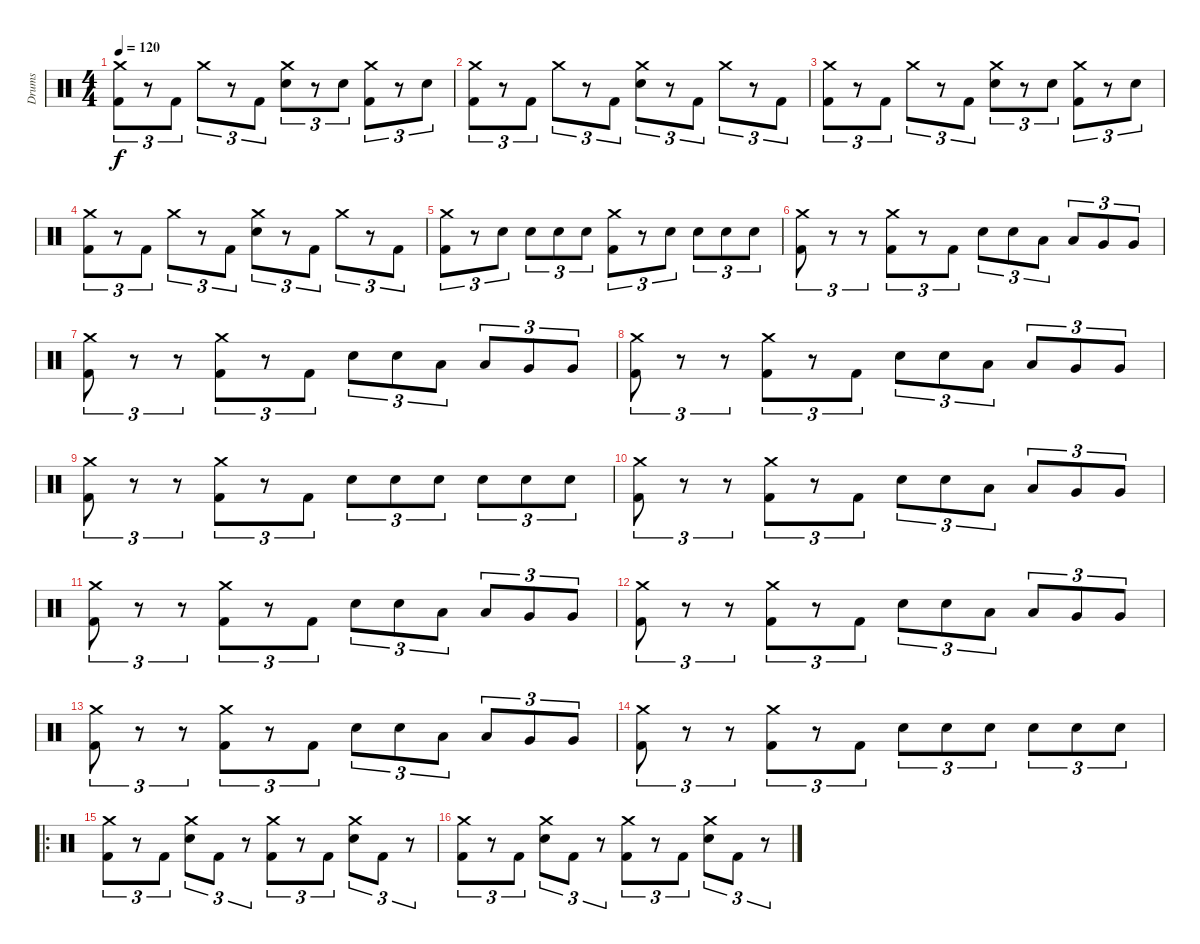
\track ("Drums" "Drums") {instrument percussion}
\staff {score}
\articulation defaults
\ts (4 4)
\tempo 120
\clef neutral
\ks c
("Crash medium (hit)" "Kick (hit) 2").8{tu (3 2) dy f} r.8{tu (3 2)} "Kick (hit) 2".8{tu (3 2)} "Crash medium (hit)".8{tu (3 2)} r.8{tu (3 2)} "Kick (hit) 2".8{tu (3 2)} ("Crash medium (hit)" "Electric Snare (hit)").8{tu (3 2)} r.8{tu (3 2)} "Electric Snare (hit)".8{tu (3 2)} ("Crash medium (hit)" "Kick (hit) 2").8{tu (3 2)} r.8{tu (3 2)} "Electric Snare (hit)".8{tu (3 2)} |
("Crash medium (hit)" "Kick (hit) 2").8{tu (3 2)} r.8{tu (3 2)} "Kick (hit) 2".8{tu (3 2)} "Crash medium (hit)".8{tu (3 2)} r.8{tu (3 2)} "Kick (hit) 2".8{tu (3 2)} ("Crash medium (hit)" "Electric Snare (hit)").8{tu (3 2)} r.8{tu (3 2)} "Kick (hit) 2".8{tu (3 2)} "Crash medium (hit)".8{tu (3 2)} r.8{tu (3 2)} "Kick (hit) 2".8{tu (3 2)} |
("Crash medium (hit)" "Kick (hit) 2").8{tu (3 2)} r.8{tu (3 2)} "Kick (hit) 2".8{tu (3 2)} "Crash medium (hit)".8{tu (3 2)} r.8{tu (3 2)} "Kick (hit) 2".8{tu (3 2)} ("Crash medium (hit)" "Electric Snare (hit)").8{tu (3 2)} r.8{tu (3 2)} "Electric Snare (hit)".8{tu (3 2)} ("Crash medium (hit)" "Kick (hit) 2").8{tu (3 2)} r.8{tu (3 2)} "Electric Snare (hit)".8{tu (3 2)} |
("Crash medium (hit)" "Kick (hit) 2").8{tu (3 2)} r.8{tu (3 2)} "Kick (hit) 2".8{tu (3 2)} "Crash medium (hit)".8{tu (3 2)} r.8{tu (3 2)} "Kick (hit) 2".8{tu (3 2)} ("Crash medium (hit)" "Electric Snare (hit)").8{tu (3 2)} r.8{tu (3 2)} "Kick (hit) 2".8{tu (3 2)} "Crash medium (hit)".8{tu (3 2)} r.8{tu (3 2)} "Kick (hit) 2".8{tu (3 2)} |
("Crash medium (hit)" "Kick (hit) 2").8{tu (3 2)} r.8{tu (3 2)} "Electric Snare (hit)".8{tu (3 2)} "Electric Snare (hit)".8{tu (3 2)} "Electric Snare (hit)".8{tu (3 2)} "Electric Snare (hit)".8{tu (3 2)} ("Crash medium (hit)" "Kick (hit) 2").8{tu (3 2)} r.8{tu (3 2)} "Electric Snare (hit)".8{tu (3 2)} "Electric Snare (hit)".8{tu (3 2)} "Electric Snare (hit)".8{tu (3 2)} "Electric Snare (hit)".8{tu (3 2)} |
("Kick (hit) 2" "Crash medium (hit)").8{tu (3 2)} r.8{tu (3 2)} r.8{tu (3 2)} ("Kick (hit) 2" "Crash medium (hit)").8{tu (3 2)} r.8{tu (3 2)} "Kick (hit) 2".8{tu (3 2)} "Electric Snare (hit)".8{tu (3 2)} "Electric Snare (hit)".8{tu (3 2)} "Low Tom (hit)".8{tu (3 2)} "Low Tom (hit)".8{tu (3 2)} "Very Low Tom (hit)".8{tu (3 2)} "Very Low Tom (hit)".8{tu (3 2)} |
("Kick (hit) 2" "Crash medium (hit)").8{tu (3 2)} r.8{tu (3 2)} r.8{tu (3 2)} ("Kick (hit) 2" "Crash medium (hit)").8{tu (3 2)} r.8{tu (3 2)} "Kick (hit) 2".8{tu (3 2)} "Electric Snare (hit)".8{tu (3 2)} "Electric Snare (hit)".8{tu (3 2)} "Low Tom (hit)".8{tu (3 2)} "Low Tom (hit)".8{tu (3 2)} "Very Low Tom (hit)".8{tu (3 2)} "Very Low Tom (hit)".8{tu (3 2)} |
("Kick (hit) 2" "Crash medium (hit)").8{tu (3 2)} r.8{tu (3 2)} r.8{tu (3 2)} ("Kick (hit) 2" "Crash medium (hit)").8{tu (3 2)} r.8{tu (3 2)} "Kick (hit) 2".8{tu (3 2)} "Electric Snare (hit)".8{tu (3 2)} "Electric Snare (hit)".8{tu (3 2)} "Low Tom (hit)".8{tu (3 2)} "Low Tom (hit)".8{tu (3 2)} "Very Low Tom (hit)".8{tu (3 2)} "Very Low Tom (hit)".8{tu (3 2)} |
("Kick (hit) 2" "Crash medium (hit)").8{tu (3 2)} r.8{tu (3 2)} r.8{tu (3 2)} ("Kick (hit) 2" "Crash medium (hit)").8{tu (3 2)} r.8{tu (3 2)} "Kick (hit) 2".8{tu (3 2)} "Electric Snare (hit)".8{tu (3 2)} "Electric Snare (hit)".8{tu (3 2)} "Electric Snare (hit)".8{tu (3 2)} "Electric Snare (hit)".8{tu (3 2)} "Electric Snare (hit)".8{tu (3 2)} "Electric Snare (hit)".8{tu (3 2)} |
("Kick (hit) 2" "Crash medium (hit)").8{tu (3 2)} r.8{tu (3 2)} r.8{tu (3 2)} ("Kick (hit) 2" "Crash medium (hit)").8{tu (3 2)} r.8{tu (3 2)} "Kick (hit) 2".8{tu (3 2)} "Electric Snare (hit)".8{tu (3 2)} "Electric Snare (hit)".8{tu (3 2)} "Low Tom (hit)".8{tu (3 2)} "Low Tom (hit)".8{tu (3 2)} "Very Low Tom (hit)".8{tu (3 2)} "Very Low Tom (hit)".8{tu (3 2)} |
("Kick (hit) 2" "Crash medium (hit)").8{tu (3 2)} r.8{tu (3 2)} r.8{tu (3 2)} ("Kick (hit) 2" "Crash medium (hit)").8{tu (3 2)} r.8{tu (3 2)} "Kick (hit) 2".8{tu (3 2)} "Electric Snare (hit)".8{tu (3 2)} "Electric Snare (hit)".8{tu (3 2)} "Low Tom (hit)".8{tu (3 2)} "Low Tom (hit)".8{tu (3 2)} "Very Low Tom (hit)".8{tu (3 2)} "Very Low Tom (hit)".8{tu (3 2)} |
("Kick (hit) 2" "Crash medium (hit)").8{tu (3 2)} r.8{tu (3 2)} r.8{tu (3 2)} ("Kick (hit) 2" "Crash medium (hit)").8{tu (3 2)} r.8{tu (3 2)} "Kick (hit) 2".8{tu (3 2)} "Electric Snare (hit)".8{tu (3 2)} "Electric Snare (hit)".8{tu (3 2)} "Low Tom (hit)".8{tu (3 2)} "Low Tom (hit)".8{tu (3 2)} "Very Low Tom (hit)".8{tu (3 2)} "Very Low Tom (hit)".8{tu (3 2)} |
("Kick (hit) 2" "Crash medium (hit)").8{tu (3 2)} r.8{tu (3 2)} r.8{tu (3 2)} ("Kick (hit) 2" "Crash medium (hit)").8{tu (3 2)} r.8{tu (3 2)} "Kick (hit) 2".8{tu (3 2)} "Electric Snare (hit)".8{tu (3 2)} "Electric Snare (hit)".8{tu (3 2)} "Low Tom (hit)".8{tu (3 2)} "Low Tom (hit)".8{tu (3 2)} "Very Low Tom (hit)".8{tu (3 2)} "Very Low Tom (hit)".8{tu (3 2)} |
("Kick (hit) 2" "Crash medium (hit)").8{tu (3 2)} r.8{tu (3 2)} r.8{tu (3 2)} ("Kick (hit) 2" "Crash medium (hit)").8{tu (3 2)} r.8{tu (3 2)} "Kick (hit) 2".8{tu (3 2)} "Electric Snare (hit)".8{tu (3 2)} "Electric Snare (hit)".8{tu (3 2)} "Electric Snare (hit)".8{tu (3 2)} "Electric Snare (hit)".8{tu (3 2)} "Electric Snare (hit)".8{tu (3 2)} "Electric Snare (hit)".8{tu (3 2)} |
\ro
("Crash medium (hit)" "Kick (hit) 2").8{tu (3 2)} r.8{tu (3 2)} "Kick (hit) 2".8{tu (3 2)} ("Crash medium (hit)" "Electric Snare (hit)").8{tu (3 2)} "Kick (hit) 2".8{tu (3 2)} r.8{tu (3 2)} ("Crash medium (hit)" "Kick (hit) 2").8{tu (3 2)} r.8{tu (3 2)} "Kick (hit) 2".8{tu (3 2)} ("Crash medium (hit)" "Electric Snare (hit)").8{tu (3 2)} "Kick (hit) 2".8{tu (3 2)} r.8{tu (3 2)} |
("Crash medium (hit)" "Kick (hit) 2").8{tu (3 2)} r.8{tu (3 2)} "Kick (hit) 2".8{tu (3 2)} ("Crash medium (hit)" "Electric Snare (hit)").8{tu (3 2)} "Kick (hit) 2".8{tu (3 2)} r.8{tu (3 2)} ("Crash medium (hit)" "Kick (hit) 2").8{tu (3 2)} r.8{tu (3 2)} "Kick (hit) 2".8{tu (3 2)} ("Crash medium (hit)" "Electric Snare (hit)").8{tu (3 2)} "Kick (hit) 2".8{tu (3 2)} r.8{tu (3 2)}
